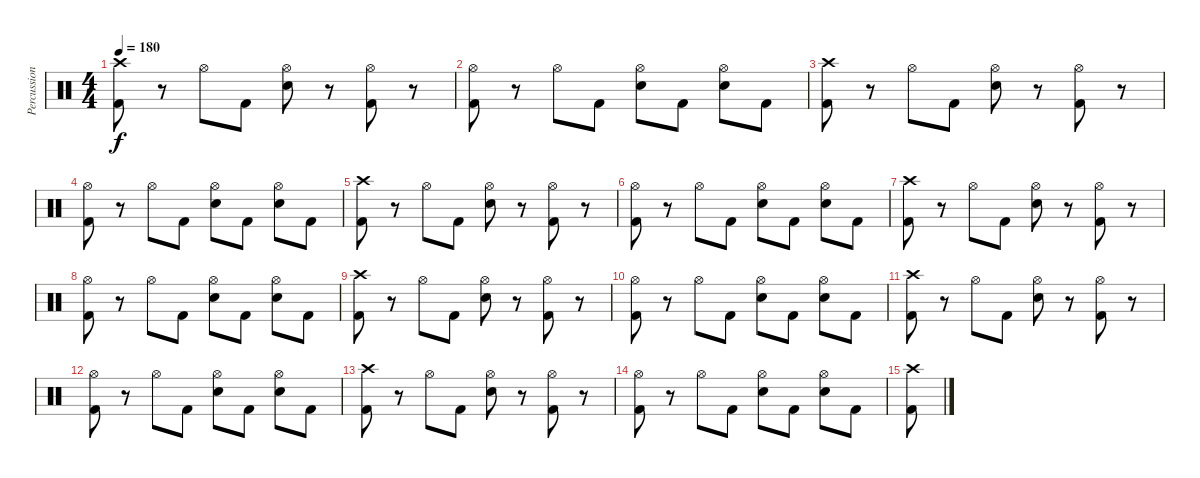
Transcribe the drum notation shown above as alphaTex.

\track ("Percussion" "Percussion") {instrument percussion}
\staff {score}
\articulation defaults
\ts (4 4)
\tempo 180
\clef neutral
\ks c
("Crash high (hit)" "Kick (hit) 2").8{dy f} r.8 "Hi-Hat (open)".8 "Kick (hit) 2".8 ("Hi-Hat (open)" "Electric Snare (hit)").8 r.8 ("Hi-Hat (open)" "Kick (hit) 2").8 r.8 |
("Hi-Hat (open)" "Kick (hit) 2").8 r.8 "Hi-Hat (open)".8 "Kick (hit) 2".8 ("Hi-Hat (open)" "Electric Snare (hit)").8 "Kick (hit) 2".8 ("Hi-Hat (open)" "Electric Snare (hit)").8 "Kick (hit) 2".8 |
("Crash high (hit)" "Kick (hit) 2").8 r.8 "Hi-Hat (open)".8 "Kick (hit) 2".8 ("Hi-Hat (open)" "Electric Snare (hit)").8 r.8 ("Hi-Hat (open)" "Kick (hit) 2").8 r.8 |
("Hi-Hat (open)" "Kick (hit) 2").8 r.8 "Hi-Hat (open)".8 "Kick (hit) 2".8 ("Hi-Hat (open)" "Electric Snare (hit)").8 "Kick (hit) 2".8 ("Hi-Hat (open)" "Electric Snare (hit)").8 "Kick (hit) 2".8 |
("Crash high (hit)" "Kick (hit) 2").8 r.8 "Hi-Hat (open)".8 "Kick (hit) 2".8 ("Hi-Hat (open)" "Electric Snare (hit)").8 r.8 ("Hi-Hat (open)" "Kick (hit) 2").8 r.8 |
("Hi-Hat (open)" "Kick (hit) 2").8 r.8 "Hi-Hat (open)".8 "Kick (hit) 2".8 ("Hi-Hat (open)" "Electric Snare (hit)").8 "Kick (hit) 2".8 ("Hi-Hat (open)" "Electric Snare (hit)").8 "Kick (hit) 2".8 |
("Crash high (hit)" "Kick (hit) 2").8 r.8 "Hi-Hat (open)".8 "Kick (hit) 2".8 ("Hi-Hat (open)" "Electric Snare (hit)").8 r.8 ("Hi-Hat (open)" "Kick (hit) 2").8 r.8 |
("Hi-Hat (open)" "Kick (hit) 2").8 r.8 "Hi-Hat (open)".8 "Kick (hit) 2".8 ("Hi-Hat (open)" "Electric Snare (hit)").8 "Kick (hit) 2".8 ("Hi-Hat (open)" "Electric Snare (hit)").8 "Kick (hit) 2".8 |
("Crash high (hit)" "Kick (hit) 2").8 r.8 "Hi-Hat (open)".8 "Kick (hit) 2".8 ("Hi-Hat (open)" "Electric Snare (hit)").8 r.8 ("Hi-Hat (open)" "Kick (hit) 2").8 r.8 |
("Hi-Hat (open)" "Kick (hit) 2").8 r.8 "Hi-Hat (open)".8 "Kick (hit) 2".8 ("Hi-Hat (open)" "Electric Snare (hit)").8 "Kick (hit) 2".8 ("Hi-Hat (open)" "Electric Snare (hit)").8 "Kick (hit) 2".8 |
("Crash high (hit)" "Kick (hit) 2").8 r.8 "Hi-Hat (open)".8 "Kick (hit) 2".8 ("Hi-Hat (open)" "Electric Snare (hit)").8 r.8 ("Hi-Hat (open)" "Kick (hit) 2").8 r.8 |
("Hi-Hat (open)" "Kick (hit) 2").8 r.8 "Hi-Hat (open)".8 "Kick (hit) 2".8 ("Hi-Hat (open)" "Electric Snare (hit)").8 "Kick (hit) 2".8 ("Hi-Hat (open)" "Electric Snare (hit)").8 "Kick (hit) 2".8 |
("Crash high (hit)" "Kick (hit) 2").8 r.8 "Hi-Hat (open)".8 "Kick (hit) 2".8 ("Hi-Hat (open)" "Electric Snare (hit)").8 r.8 ("Hi-Hat (open)" "Kick (hit) 2").8 r.8 |
("Hi-Hat (open)" "Kick (hit) 2").8 r.8 "Hi-Hat (open)".8 "Kick (hit) 2".8 ("Hi-Hat (open)" "Electric Snare (hit)").8 "Kick (hit) 2".8 ("Hi-Hat (open)" "Electric Snare (hit)").8 "Kick (hit) 2".8 |
("Crash high (hit)" "Kick (hit) 2").8
